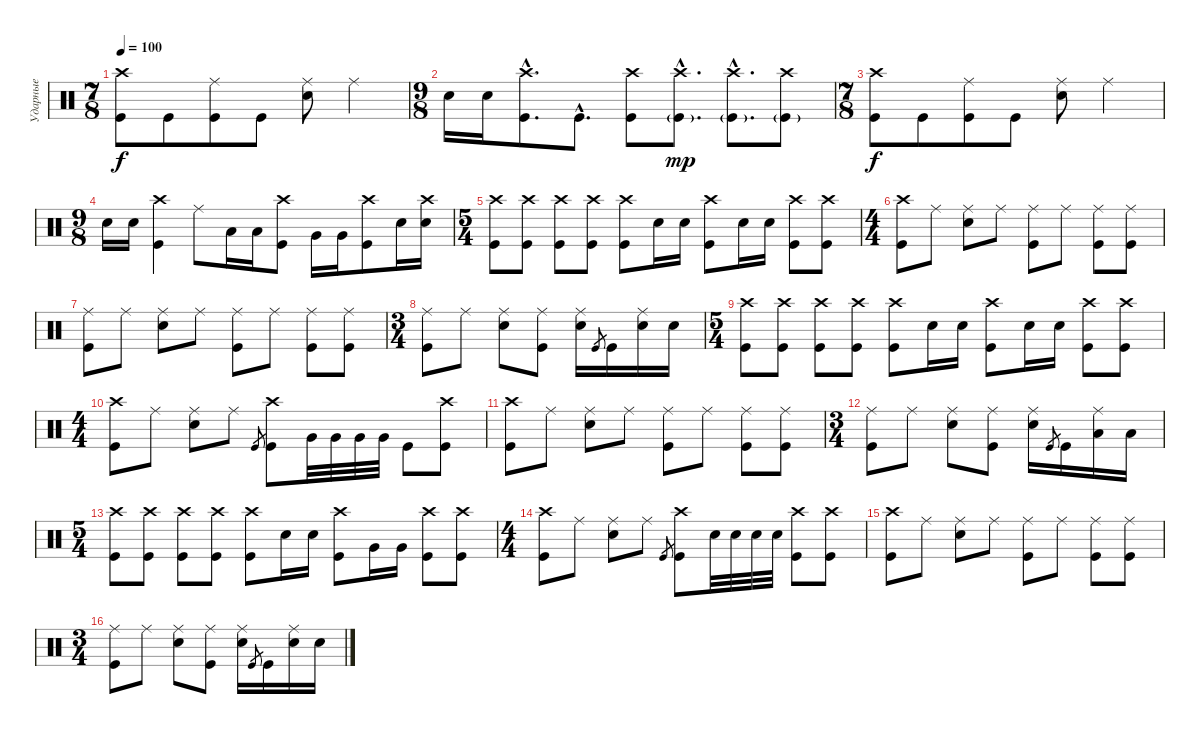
\track ("Ударные" "Ударные") {instrument percussion}
\staff {score}
\articulation defaults
\ts (7 8)
\tempo 100
\clef neutral
\ks c
("Crash high (hit)" "Kick (hit)").8{dy f} "Kick (hit)".8 ("Ride (middle)" "Kick (hit)").8 "Kick (hit)".8 ("Ride (middle)" "Electric Snare (hit)").8 "Ride (middle)".4 |
\ts (9 8)
"Electric Snare (hit)".16 "Electric Snare (hit)".16 ("Crash high (hit)"{hac} "Kick (hit)"{hac}).8{d} "Kick (hit)"{hac}.8{d} ("Crash high (hit)" "Kick (hit)").8 ("Crash high (hit)"{hac} "Kick (hit)"{g hac}).8{d dy mp} ("Crash high (hit)"{hac} "Kick (hit)"{g hac}).8{d} ("Crash high (hit)" "Kick (hit)"{g}).8 |
\ts (7 8)
("Crash high (hit)" "Kick (hit)").8{dy f} "Kick (hit)".8 ("Ride (middle)" "Kick (hit)").8 "Kick (hit)".8 ("Ride (middle)" "Electric Snare (hit)").8 "Ride (middle)".4 |
\ts (9 8)
"Electric Snare (hit)".16 "Electric Snare (hit)".16 ("Crash high (hit)" "Kick (hit)").4 "Ride (middle)".8 "Low Tom (hit)".16 "Low Tom (hit)".16 ("Crash high (hit)" "Kick (hit)").8 "Very Low Tom (hit)".16 "Very Low Tom (hit)".16 ("Crash high (hit)" "Kick (hit)").8 "Electric Snare (hit)".16 ("Crash high (hit)" "Electric Snare (hit)").16 |
\ts (5 4)
("Crash high (hit)" "Kick (hit)").8 ("Crash high (hit)" "Kick (hit)").8 ("Crash high (hit)" "Kick (hit)").8 ("Crash high (hit)" "Kick (hit)").8 ("Crash high (hit)" "Kick (hit)").8 "Electric Snare (hit)".16 "Electric Snare (hit)".16 ("Crash high (hit)" "Kick (hit)").8 "Electric Snare (hit)".16 "Electric Snare (hit)".16 ("Crash high (hit)" "Kick (hit)").8 ("Crash high (hit)" "Kick (hit)").8 |
\ts (4 4)
("Crash high (hit)" "Kick (hit)").8 "Ride (middle)".8 ("Ride (middle)" "Electric Snare (hit)").8 "Ride (middle)".8 ("Ride (middle)" "Kick (hit)").8 "Ride (middle)".8 ("Ride (middle)" "Kick (hit)").8 ("Ride (middle)" "Kick (hit)").8 |
("Ride (middle)" "Kick (hit)").8 "Ride (middle)".8 ("Ride (middle)" "Electric Snare (hit)").8 "Ride (middle)".8 ("Ride (middle)" "Kick (hit)").8 "Ride (middle)".8 ("Ride (middle)" "Kick (hit)").8 ("Ride (middle)" "Kick (hit)").8 |
\ts (3 4)
("Ride (middle)" "Kick (hit)").8 "Ride (middle)".8 ("Ride (middle)" "Electric Snare (hit)").8 ("Ride (middle)" "Kick (hit)").8 ("Ride (middle)" "Electric Snare (hit)").16 "Kick (hit)".8{gr} "Kick (hit)".16 ("Ride (middle)" "Electric Snare (hit)").16 "Electric Snare (hit)".16 |
\ts (5 4)
("Crash high (hit)" "Kick (hit)").8 ("Crash high (hit)" "Kick (hit)").8 ("Crash high (hit)" "Kick (hit)").8 ("Crash high (hit)" "Kick (hit)").8 ("Crash high (hit)" "Kick (hit)").8 "Electric Snare (hit)".16 "Electric Snare (hit)".16 ("Crash high (hit)" "Kick (hit)").8 "Electric Snare (hit)".16 "Electric Snare (hit)".16 ("Crash high (hit)" "Kick (hit)").8 ("Crash high (hit)" "Kick (hit)").8 |
\ts (4 4)
("Crash high (hit)" "Kick (hit)").8 "Ride (middle)".8 ("Ride (middle)" "Electric Snare (hit)").8 "Ride (middle)".8 "Kick (hit)".8{gr} ("Crash high (hit)" "Kick (hit)").8 "Very Low Tom (hit)".32 "Very Low Tom (hit)".32 "Very Low Tom (hit)".32 "Very Low Tom (hit)".32 "Kick (hit)".8 ("Crash high (hit)" "Kick (hit)").8 |
("Crash high (hit)" "Kick (hit)").8 "Ride (middle)".8 ("Ride (middle)" "Electric Snare (hit)").8 "Ride (middle)".8 ("Ride (middle)" "Kick (hit)").8 "Ride (middle)".8 ("Ride (middle)" "Kick (hit)").8 ("Ride (middle)" "Kick (hit)").8 |
\ts (3 4)
("Ride (middle)" "Kick (hit)").8 "Ride (middle)".8 ("Ride (middle)" "Electric Snare (hit)").8 ("Ride (middle)" "Kick (hit)").8 ("Ride (middle)" "Electric Snare (hit)").16 "Kick (hit)".8{gr} "Kick (hit)".16 ("Ride (middle)" "Low Tom (hit)").16 "Low Tom (hit)".16 |
\ts (5 4)
("Crash high (hit)" "Kick (hit)").8 ("Crash high (hit)" "Kick (hit)").8 ("Crash high (hit)" "Kick (hit)").8 ("Crash high (hit)" "Kick (hit)").8 ("Crash high (hit)" "Kick (hit)").8 "Electric Snare (hit)".16 "Electric Snare (hit)".16 ("Crash high (hit)" "Kick (hit)").8 "Very Low Tom (hit)".16 "Very Low Tom (hit)".16 ("Crash high (hit)" "Kick (hit)").8 ("Crash high (hit)" "Kick (hit)").8 |
\ts (4 4)
("Crash high (hit)" "Kick (hit)").8 "Ride (middle)".8 ("Ride (middle)" "Electric Snare (hit)").8 "Ride (middle)".8 "Kick (hit)".8{gr} ("Crash high (hit)" "Kick (hit)").8 "Electric Snare (hit)".32 "Electric Snare (hit)".32 "Electric Snare (hit)".32 "Electric Snare (hit)".32 ("Crash high (hit)" "Kick (hit)").8 ("Crash high (hit)" "Kick (hit)").8 |
("Crash high (hit)" "Kick (hit)").8 "Ride (middle)".8 ("Ride (middle)" "Electric Snare (hit)").8 "Ride (middle)".8 ("Ride (middle)" "Kick (hit)").8 "Ride (middle)".8 ("Ride (middle)" "Kick (hit)").8 ("Ride (middle)" "Kick (hit)").8 |
\ts (3 4)
("Ride (middle)" "Kick (hit)").8 "Ride (middle)".8 ("Ride (middle)" "Electric Snare (hit)").8 ("Ride (middle)" "Kick (hit)").8 ("Ride (middle)" "Electric Snare (hit)").16 "Kick (hit)".8{gr} "Kick (hit)".16 ("Ride (middle)" "Electric Snare (hit)").16 "Electric Snare (hit)".16
